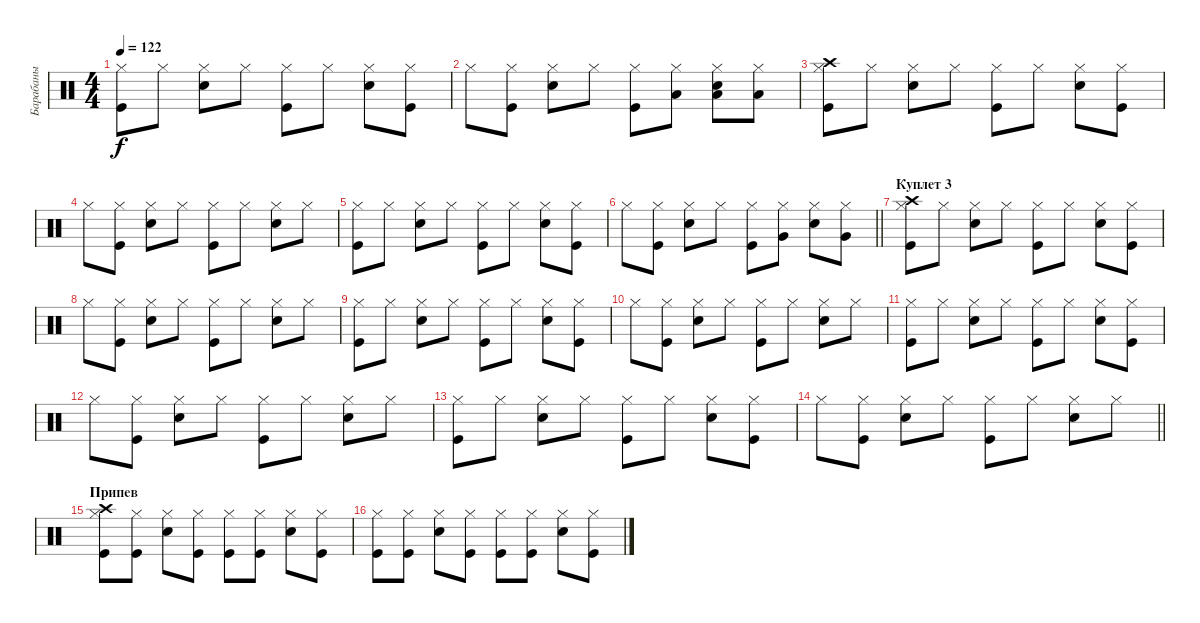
\track ("Барабаны" "Барабаны") {instrument percussion}
\staff {score}
\articulation defaults
\ts (4 4)
\tempo 122
\clef neutral
\ks c
("Kick (hit)" "Hi-Hat (closed)").8{dy f} "Hi-Hat (closed)".8 ("Snare (hit) 2" "Hi-Hat (closed)").8 "Hi-Hat (closed)".8 ("Kick (hit)" "Hi-Hat (closed)").8 "Hi-Hat (closed)".8 ("Snare (hit) 2" "Hi-Hat (closed)").8 ("Kick (hit)" "Hi-Hat (closed)").8 |
"Hi-Hat (closed)".8 ("Kick (hit)" "Hi-Hat (closed)").8 ("Snare (hit) 2" "Hi-Hat (closed)").8 "Hi-Hat (closed)".8 ("Kick (hit)" "Hi-Hat (closed)").8 ("Hi-Hat (closed)" "Low Floor Tom (hit)").8 ("Snare (hit) 2" "Hi-Hat (closed)" "Low Floor Tom (hit)").8 ("Hi-Hat (closed)" "Low Floor Tom (hit)").8 |
("Kick (hit)" "Hi-Hat (closed)" "Crash high (hit)").8 "Hi-Hat (closed)".8 ("Snare (hit) 2" "Hi-Hat (closed)").8 "Hi-Hat (closed)".8 ("Kick (hit)" "Hi-Hat (closed)").8 "Hi-Hat (closed)".8 ("Snare (hit) 2" "Hi-Hat (closed)").8 ("Kick (hit)" "Hi-Hat (closed)").8 |
"Hi-Hat (closed)".8 ("Kick (hit)" "Hi-Hat (closed)").8 ("Snare (hit) 2" "Hi-Hat (closed)").8 "Hi-Hat (closed)".8 ("Kick (hit)" "Hi-Hat (closed)").8 "Hi-Hat (closed)".8 ("Snare (hit) 2" "Hi-Hat (closed)").8 "Hi-Hat (closed)".8 |
("Kick (hit)" "Hi-Hat (closed)").8 "Hi-Hat (closed)".8 ("Snare (hit) 2" "Hi-Hat (closed)").8 "Hi-Hat (closed)".8 ("Kick (hit)" "Hi-Hat (closed)").8 "Hi-Hat (closed)".8 ("Snare (hit) 2" "Hi-Hat (closed)").8 ("Kick (hit)" "Hi-Hat (closed)").8 |
\barLineRight lightlight "Hi-Hat (closed)".8
("Kick (hit)" "Hi-Hat (closed)").8 ("Snare (hit) 2" "Hi-Hat (closed)").8 "Hi-Hat (closed)".8 ("Kick (hit)" "Hi-Hat (closed)").8 ("Hi-Hat (closed)" "Very Low Tom (hit)").8 ("Snare (hit) 2" "Hi-Hat (closed)").8 ("Hi-Hat (closed)" "Very Low Tom (hit)").8 |
\section ("" "Куплет 3")
("Kick (hit)" "Hi-Hat (closed)" "Crash high (hit)").8 "Hi-Hat (closed)".8 ("Snare (hit) 2" "Hi-Hat (closed)").8 "Hi-Hat (closed)".8 ("Kick (hit)" "Hi-Hat (closed)").8 "Hi-Hat (closed)".8 ("Snare (hit) 2" "Hi-Hat (closed)").8 ("Kick (hit)" "Hi-Hat (closed)").8 |
"Hi-Hat (closed)".8 ("Kick (hit)" "Hi-Hat (closed)").8 ("Snare (hit) 2" "Hi-Hat (closed)").8 "Hi-Hat (closed)".8 ("Kick (hit)" "Hi-Hat (closed)").8 "Hi-Hat (closed)".8 ("Snare (hit) 2" "Hi-Hat (closed)").8 "Hi-Hat (closed)".8 |
("Kick (hit)" "Hi-Hat (closed)").8 "Hi-Hat (closed)".8 ("Snare (hit) 2" "Hi-Hat (closed)").8 "Hi-Hat (closed)".8 ("Kick (hit)" "Hi-Hat (closed)").8 "Hi-Hat (closed)".8 ("Snare (hit) 2" "Hi-Hat (closed)").8 ("Kick (hit)" "Hi-Hat (closed)").8 |
"Hi-Hat (closed)".8 ("Kick (hit)" "Hi-Hat (closed)").8 ("Snare (hit) 2" "Hi-Hat (closed)").8 "Hi-Hat (closed)".8 ("Kick (hit)" "Hi-Hat (closed)").8 "Hi-Hat (closed)".8 ("Snare (hit) 2" "Hi-Hat (closed)").8 "Hi-Hat (closed)".8 |
("Kick (hit)" "Hi-Hat (closed)").8 "Hi-Hat (closed)".8 ("Snare (hit) 2" "Hi-Hat (closed)").8 "Hi-Hat (closed)".8 ("Kick (hit)" "Hi-Hat (closed)").8 "Hi-Hat (closed)".8 ("Snare (hit) 2" "Hi-Hat (closed)").8 ("Kick (hit)" "Hi-Hat (closed)").8 |
"Hi-Hat (closed)".8 ("Kick (hit)" "Hi-Hat (closed)").8 ("Snare (hit) 2" "Hi-Hat (closed)").8 "Hi-Hat (closed)".8 ("Kick (hit)" "Hi-Hat (closed)").8 "Hi-Hat (closed)".8 ("Snare (hit) 2" "Hi-Hat (closed)").8 "Hi-Hat (closed)".8 |
("Kick (hit)" "Hi-Hat (closed)").8 "Hi-Hat (closed)".8 ("Snare (hit) 2" "Hi-Hat (closed)").8 "Hi-Hat (closed)".8 ("Kick (hit)" "Hi-Hat (closed)").8 "Hi-Hat (closed)".8 ("Snare (hit) 2" "Hi-Hat (closed)").8 ("Kick (hit)" "Hi-Hat (closed)").8 |
\barLineRight lightlight "Hi-Hat (closed)".8
("Kick (hit)" "Hi-Hat (closed)").8 ("Snare (hit) 2" "Hi-Hat (closed)").8 "Hi-Hat (closed)".8 ("Kick (hit)" "Hi-Hat (closed)").8 "Hi-Hat (closed)".8 ("Snare (hit) 2" "Hi-Hat (closed)").8 "Hi-Hat (closed)".8 |
\section ("" "Припев")
("Kick (hit)" "Hi-Hat (closed)" "Crash high (hit)").8 ("Kick (hit)" "Hi-Hat (closed)").8 ("Snare (hit) 2" "Hi-Hat (closed)").8 ("Kick (hit)" "Hi-Hat (closed)").8 ("Kick (hit)" "Hi-Hat (closed)").8 ("Kick (hit)" "Hi-Hat (closed)").8 ("Snare (hit) 2" "Hi-Hat (closed)").8 ("Kick (hit)" "Hi-Hat (closed)").8 |
("Kick (hit)" "Hi-Hat (closed)").8 ("Kick (hit)" "Hi-Hat (closed)").8 ("Snare (hit) 2" "Hi-Hat (closed)").8 ("Kick (hit)" "Hi-Hat (closed)").8 ("Kick (hit)" "Hi-Hat (closed)").8 ("Kick (hit)" "Hi-Hat (closed)").8 ("Snare (hit) 2" "Hi-Hat (closed)").8 ("Kick (hit)" "Hi-Hat (closed)").8
